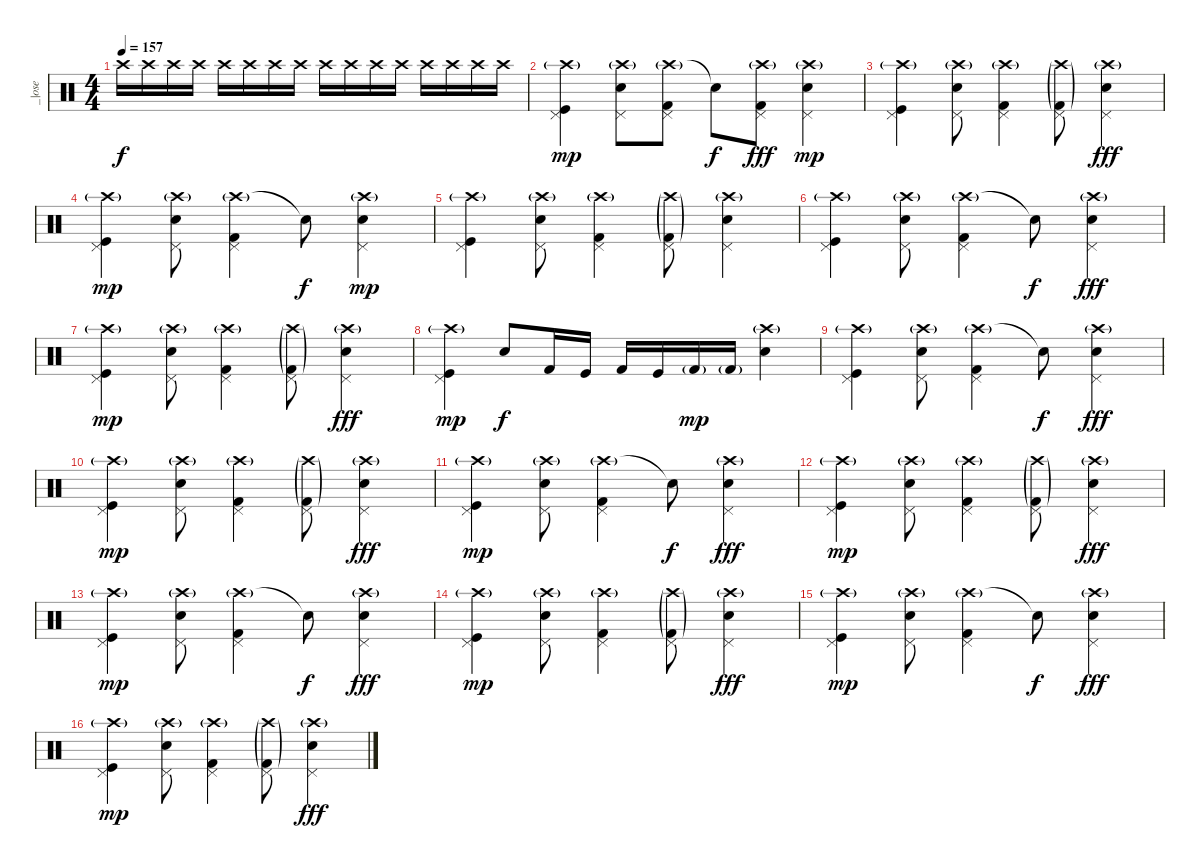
\track ("_|ose" "_|ose") {instrument percussion}
\staff {score}
\articulation defaults
\ts (4 4)
\tempo 157
\clef neutral
\ks c "Crash high (hit)".16{dy f} "Crash high (hit)".16 "Crash high (hit)".16 "Crash high (hit)".16 "Crash high (hit)".16 "Crash high (hit)".16 "Crash high (hit)".16 "Crash high (hit)".16 "Crash high (hit)".16 "Crash high (hit)".16 "Crash high (hit)".16 "Crash high (hit)".16 "Crash high (hit)".16 "Crash high (hit)".16 "Crash high (hit)".16 "Crash high (hit)".16
|
("Crash high (hit)"{g} "Pedal Hi-Hat (hit)" "Kick (hit)").4{dy mp} ("Crash high (hit)"{g} "Pedal Hi-Hat (hit)" "Electric Snare (hit)").8 ("Crash high (hit)"{g} "Pedal Hi-Hat (hit)" "Kick (hit) 2").8 "Snare (hit)"{t}.8{dy f} ("Crash high (hit)"{g} "Pedal Hi-Hat (hit)" "Kick (hit) 2").8{dy fff} ("Crash high (hit)"{g} "Pedal Hi-Hat (hit)" "Electric Snare (hit)").4{dy mp} |
("Crash high (hit)"{g} "Pedal Hi-Hat (hit)" "Kick (hit)").4 ("Crash high (hit)"{g} "Pedal Hi-Hat (hit)" "Electric Snare (hit)").8 ("Crash high (hit)"{g} "Pedal Hi-Hat (hit)" "Kick (hit) 2").4 ("Crash high (hit)"{g} "Pedal Hi-Hat (hit)" "Kick (hit) 2"{g}).8 ("Crash high (hit)"{g} "Pedal Hi-Hat (hit)" "Electric Snare (hit)").4{dy fff} |
("Crash high (hit)"{g} "Pedal Hi-Hat (hit)" "Kick (hit)").4{dy mp} ("Crash high (hit)"{g} "Pedal Hi-Hat (hit)" "Electric Snare (hit)").8 ("Crash high (hit)"{g} "Pedal Hi-Hat (hit)" "Kick (hit) 2").4 "Snare (hit)"{t}.8{dy f} ("Crash high (hit)"{g} "Pedal Hi-Hat (hit)" "Electric Snare (hit)").4{dy mp} |
("Crash high (hit)"{g} "Pedal Hi-Hat (hit)" "Kick (hit)").4 ("Crash high (hit)"{g} "Pedal Hi-Hat (hit)" "Electric Snare (hit)").8 ("Crash high (hit)"{g} "Pedal Hi-Hat (hit)" "Kick (hit) 2").4 ("Crash high (hit)"{g} "Pedal Hi-Hat (hit)" "Kick (hit) 2"{g}).8 ("Crash high (hit)"{g} "Pedal Hi-Hat (hit)" "Electric Snare (hit)").4 |
("Crash high (hit)"{g} "Pedal Hi-Hat (hit)" "Kick (hit)").4 ("Crash high (hit)"{g} "Pedal Hi-Hat (hit)" "Electric Snare (hit)").8 ("Crash high (hit)"{g} "Pedal Hi-Hat (hit)" "Kick (hit) 2").4 "Snare (hit)"{t}.8{dy f} ("Crash high (hit)"{g} "Pedal Hi-Hat (hit)" "Electric Snare (hit)").4{dy fff} |
("Crash high (hit)"{g} "Pedal Hi-Hat (hit)" "Kick (hit)").4{dy mp} ("Crash high (hit)"{g} "Pedal Hi-Hat (hit)" "Electric Snare (hit)").8 ("Crash high (hit)"{g} "Pedal Hi-Hat (hit)" "Kick (hit) 2").4 ("Crash high (hit)"{g} "Pedal Hi-Hat (hit)" "Kick (hit) 2"{g}).8 ("Crash high (hit)"{g} "Pedal Hi-Hat (hit)" "Electric Snare (hit)").4{dy fff} |
("Crash high (hit)"{g} "Pedal Hi-Hat (hit)" "Kick (hit)").4{dy mp} "Electric Snare (hit)".8{dy f} "Kick (hit) 2".16 "Kick (hit)".16 "Kick (hit) 2".16 "Kick (hit)".16 "Kick (hit) 2"{g}.16{dy mp} "Kick (hit) 2"{g}.16 ("Crash high (hit)"{g} "Electric Snare (hit)").4 |
("Crash high (hit)"{g} "Pedal Hi-Hat (hit)" "Kick (hit)").4 ("Crash high (hit)"{g} "Pedal Hi-Hat (hit)" "Electric Snare (hit)").8 ("Crash high (hit)"{g} "Pedal Hi-Hat (hit)" "Kick (hit) 2").4 "Snare (hit)"{t}.8{dy f} ("Crash high (hit)"{g} "Pedal Hi-Hat (hit)" "Electric Snare (hit)").4{dy fff} |
("Crash high (hit)"{g} "Pedal Hi-Hat (hit)" "Kick (hit)").4{dy mp} ("Crash high (hit)"{g} "Pedal Hi-Hat (hit)" "Electric Snare (hit)").8 ("Crash high (hit)"{g} "Pedal Hi-Hat (hit)" "Kick (hit) 2").4 ("Crash high (hit)"{g} "Pedal Hi-Hat (hit)" "Kick (hit) 2"{g}).8 ("Crash high (hit)"{g} "Pedal Hi-Hat (hit)" "Electric Snare (hit)").4{dy fff} |
("Crash high (hit)"{g} "Pedal Hi-Hat (hit)" "Kick (hit)").4{dy mp} ("Crash high (hit)"{g} "Pedal Hi-Hat (hit)" "Electric Snare (hit)").8 ("Crash high (hit)"{g} "Pedal Hi-Hat (hit)" "Kick (hit) 2").4 "Snare (hit)"{t}.8{dy f} ("Crash high (hit)"{g} "Pedal Hi-Hat (hit)" "Electric Snare (hit)").4{dy fff} |
("Crash high (hit)"{g} "Pedal Hi-Hat (hit)" "Kick (hit)").4{dy mp} ("Crash high (hit)"{g} "Pedal Hi-Hat (hit)" "Electric Snare (hit)").8 ("Crash high (hit)"{g} "Pedal Hi-Hat (hit)" "Kick (hit) 2").4 ("Crash high (hit)"{g} "Pedal Hi-Hat (hit)" "Kick (hit) 2"{g}).8 ("Crash high (hit)"{g} "Pedal Hi-Hat (hit)" "Electric Snare (hit)").4{dy fff} |
("Crash high (hit)"{g} "Pedal Hi-Hat (hit)" "Kick (hit)").4{dy mp} ("Crash high (hit)"{g} "Pedal Hi-Hat (hit)" "Electric Snare (hit)").8 ("Crash high (hit)"{g} "Pedal Hi-Hat (hit)" "Kick (hit) 2").4 "Snare (hit)"{t}.8{dy f} ("Crash high (hit)"{g} "Pedal Hi-Hat (hit)" "Electric Snare (hit)").4{dy fff} |
("Crash high (hit)"{g} "Pedal Hi-Hat (hit)" "Kick (hit)").4{dy mp} ("Crash high (hit)"{g} "Pedal Hi-Hat (hit)" "Electric Snare (hit)").8 ("Crash high (hit)"{g} "Pedal Hi-Hat (hit)" "Kick (hit) 2").4 ("Crash high (hit)"{g} "Pedal Hi-Hat (hit)" "Kick (hit) 2"{g}).8 ("Crash high (hit)"{g} "Pedal Hi-Hat (hit)" "Electric Snare (hit)").4{dy fff} |
("Crash high (hit)"{g} "Pedal Hi-Hat (hit)" "Kick (hit)").4{dy mp} ("Crash high (hit)"{g} "Pedal Hi-Hat (hit)" "Electric Snare (hit)").8 ("Crash high (hit)"{g} "Pedal Hi-Hat (hit)" "Kick (hit) 2").4 "Snare (hit)"{t}.8{dy f} ("Crash high (hit)"{g} "Pedal Hi-Hat (hit)" "Electric Snare (hit)").4{dy fff} |
("Crash high (hit)"{g} "Pedal Hi-Hat (hit)" "Kick (hit)").4{dy mp} ("Crash high (hit)"{g} "Pedal Hi-Hat (hit)" "Electric Snare (hit)").8 ("Crash high (hit)"{g} "Pedal Hi-Hat (hit)" "Kick (hit) 2").4 ("Crash high (hit)"{g} "Pedal Hi-Hat (hit)" "Kick (hit) 2"{g}).8 ("Crash high (hit)"{g} "Pedal Hi-Hat (hit)" "Electric Snare (hit)").4{dy fff}
